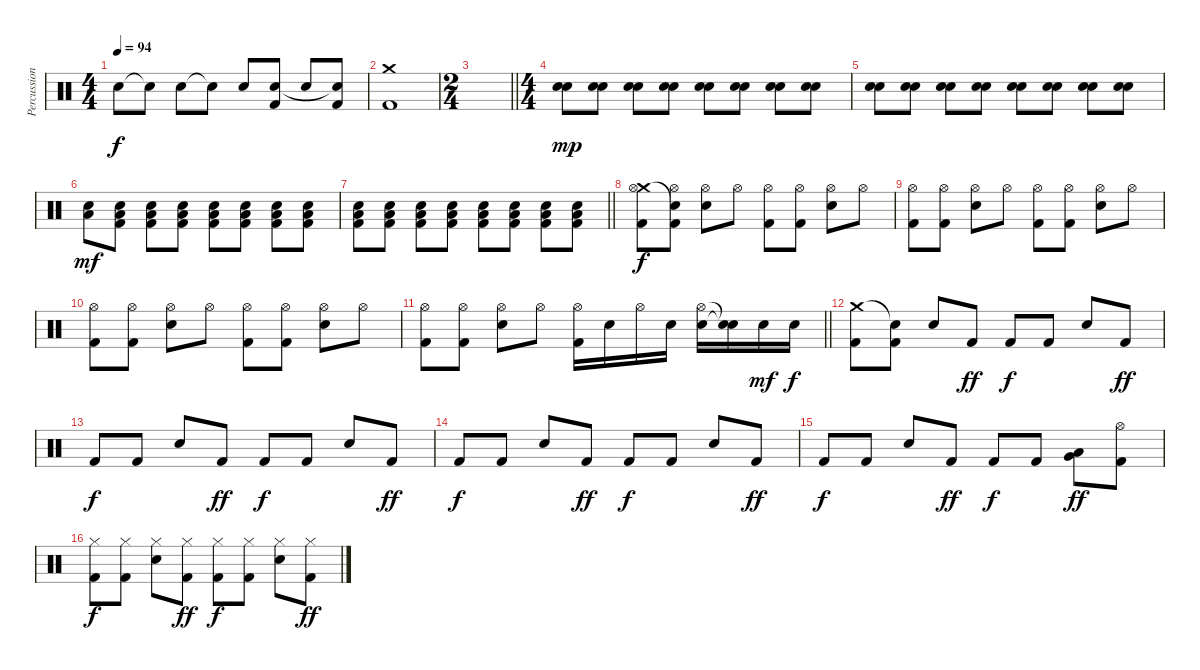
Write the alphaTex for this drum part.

\track ("Percussion" "Percussion") {instrument percussion}
\staff {score}
\articulation defaults
\ts (4 4)
\tempo 94
\clef neutral
\ks c "Electric Snare (hit)".8{dy f} "Snare (hit)"{t}.8 "Electric Snare (hit)".8 "Snare (hit)"{t}.8 "Electric Snare (hit)".8
("Kick (hit) 2" "Snare (hit)"{t}).8 "Electric Snare (hit)".8 ("Kick (hit) 2" "Snare (hit)"{t}).8 |
("Kick (hit) 2" "Crash medium (hit)").1 |
\ts (2 4)
\barLineRight lightlight
|
\ts (4 4)
("Electric Snare (hit)" "Electric Snare (hit)").8{dy mp} ("Electric Snare (hit)" "Electric Snare (hit)").8 ("Electric Snare (hit)" "Electric Snare (hit)").8 ("Electric Snare (hit)" "Electric Snare (hit)").8 ("Electric Snare (hit)" "Electric Snare (hit)").8 ("Electric Snare (hit)" "Electric Snare (hit)").8 ("Electric Snare (hit)" "Electric Snare (hit)").8 ("Electric Snare (hit)" "Electric Snare (hit)").8 |
("Electric Snare (hit)" "Electric Snare (hit)").8 ("Electric Snare (hit)" "Electric Snare (hit)").8 ("Electric Snare (hit)" "Electric Snare (hit)").8 ("Electric Snare (hit)" "Electric Snare (hit)").8 ("Electric Snare (hit)" "Electric Snare (hit)").8 ("Electric Snare (hit)" "Electric Snare (hit)").8 ("Electric Snare (hit)" "Electric Snare (hit)").8 ("Electric Snare (hit)" "Electric Snare (hit)").8 |
("Electric Snare (hit)" "Low Floor Tom (hit)").8{dy mf} ("Kick (hit) 2" "Electric Snare (hit)" "Low Floor Tom (hit)").8 ("Kick (hit) 2" "Electric Snare (hit)" "Low Floor Tom (hit)").8 ("Kick (hit) 2" "Electric Snare (hit)" "Low Floor Tom (hit)").8 ("Kick (hit) 2" "Electric Snare (hit)" "Low Floor Tom (hit)").8 ("Kick (hit) 2" "Electric Snare (hit)" "Low Floor Tom (hit)").8 ("Kick (hit) 2" "Electric Snare (hit)" "Low Floor Tom (hit)").8 ("Kick (hit) 2" "Electric Snare (hit)" "Low Floor Tom (hit)").8 |
\barLineRight lightlight
("Kick (hit) 2" "Electric Snare (hit)" "Low Floor Tom (hit)").8 ("Kick (hit) 2" "Electric Snare (hit)" "Low Floor Tom (hit)").8 ("Kick (hit) 2" "Electric Snare (hit)" "Low Floor Tom (hit)").8 ("Kick (hit) 2" "Electric Snare (hit)" "Low Floor Tom (hit)").8 ("Kick (hit) 2" "Electric Snare (hit)" "Low Floor Tom (hit)").8 ("Kick (hit) 2" "Electric Snare (hit)" "Low Floor Tom (hit)").8 ("Kick (hit) 2" "Electric Snare (hit)" "Low Floor Tom (hit)").8 ("Kick (hit) 2" "Electric Snare (hit)" "Low Floor Tom (hit)").8 |
("Kick (hit) 2" "Crash medium (hit)" "Hi-Hat (open)").8{dy f} ("Kick (hit) 2" "Snare (hit)"{t} "Hi-Hat (open)").8 ("Electric Snare (hit)" "Hi-Hat (open)").8 "Hi-Hat (open)".8 ("Kick (hit) 2" "Hi-Hat (open)").8 ("Kick (hit) 2" "Hi-Hat (open)").8 ("Electric Snare (hit)" "Hi-Hat (open)").8 "Hi-Hat (open)".8 |
("Kick (hit) 2" "Hi-Hat (open)").8 ("Kick (hit) 2" "Hi-Hat (open)").8 ("Electric Snare (hit)" "Hi-Hat (open)").8 "Hi-Hat (open)".8 ("Kick (hit) 2" "Hi-Hat (open)").8 ("Kick (hit) 2" "Hi-Hat (open)").8 ("Electric Snare (hit)" "Hi-Hat (open)").8 "Hi-Hat (open)".8 |
("Kick (hit) 2" "Hi-Hat (open)").8 ("Kick (hit) 2" "Hi-Hat (open)").8 ("Electric Snare (hit)" "Hi-Hat (open)").8 "Hi-Hat (open)".8 ("Kick (hit) 2" "Hi-Hat (open)").8 ("Kick (hit) 2" "Hi-Hat (open)").8 ("Electric Snare (hit)" "Hi-Hat (open)").8 "Hi-Hat (open)".8 |
\barLineRight lightlight
("Kick (hit) 2" "Hi-Hat (open)").8 ("Kick (hit) 2" "Hi-Hat (open)").8 ("Electric Snare (hit)" "Hi-Hat (open)").8 "Hi-Hat (open)".8 ("Kick (hit) 2" "Hi-Hat (open)").16 "Electric Snare (hit)".16 "Hi-Hat (open)".16 "Electric Snare (hit)".16 ("Electric Snare (hit)" "Hi-Hat (open)").16 ("Electric Snare (hit)"{t} "Snare (hit)"{t}).16 "Electric Snare (hit)".16{dy mf} "Electric Snare (hit)".16{dy f} |
("Kick (hit) 2" "Crash medium (hit)").8 ("Kick (hit) 2" "Snare (hit)"{t}).8 "Electric Snare (hit)".8 "Kick (hit) 2".8{dy ff} "Kick (hit) 2".8{dy f} "Kick (hit) 2".8 "Electric Snare (hit)".8 "Kick (hit) 2".8{dy ff} |
"Kick (hit) 2".8{dy f} "Kick (hit) 2".8 "Electric Snare (hit)".8 "Kick (hit) 2".8{dy ff} "Kick (hit) 2".8{dy f} "Kick (hit) 2".8 "Electric Snare (hit)".8 "Kick (hit) 2".8{dy ff} |
"Kick (hit) 2".8{dy f} "Kick (hit) 2".8 "Electric Snare (hit)".8 "Kick (hit) 2".8{dy ff} "Kick (hit) 2".8{dy f} "Kick (hit) 2".8 "Electric Snare (hit)".8 "Kick (hit) 2".8{dy ff} |
"Kick (hit) 2".8{dy f} "Kick (hit) 2".8 "Electric Snare (hit)".8 "Kick (hit) 2".8{dy ff} "Kick (hit) 2".8{dy f} "Kick (hit) 2".8 ("Low Tom (hit)" "Very Low Tom (hit)").8{dy ff} ("Kick (hit) 2" "Hi-Hat (open)").8 |
("Kick (hit) 2" "Hi-Hat (closed)").8{dy f} ("Kick (hit) 2" "Hi-Hat (closed)").8 ("Electric Snare (hit)" "Hi-Hat (closed)").8 ("Kick (hit) 2" "Hi-Hat (closed)").8{dy ff} ("Kick (hit) 2" "Hi-Hat (closed)").8{dy f} ("Kick (hit) 2" "Hi-Hat (closed)").8 ("Electric Snare (hit)" "Hi-Hat (closed)").8 ("Kick (hit) 2" "Hi-Hat (closed)").8{dy ff}
